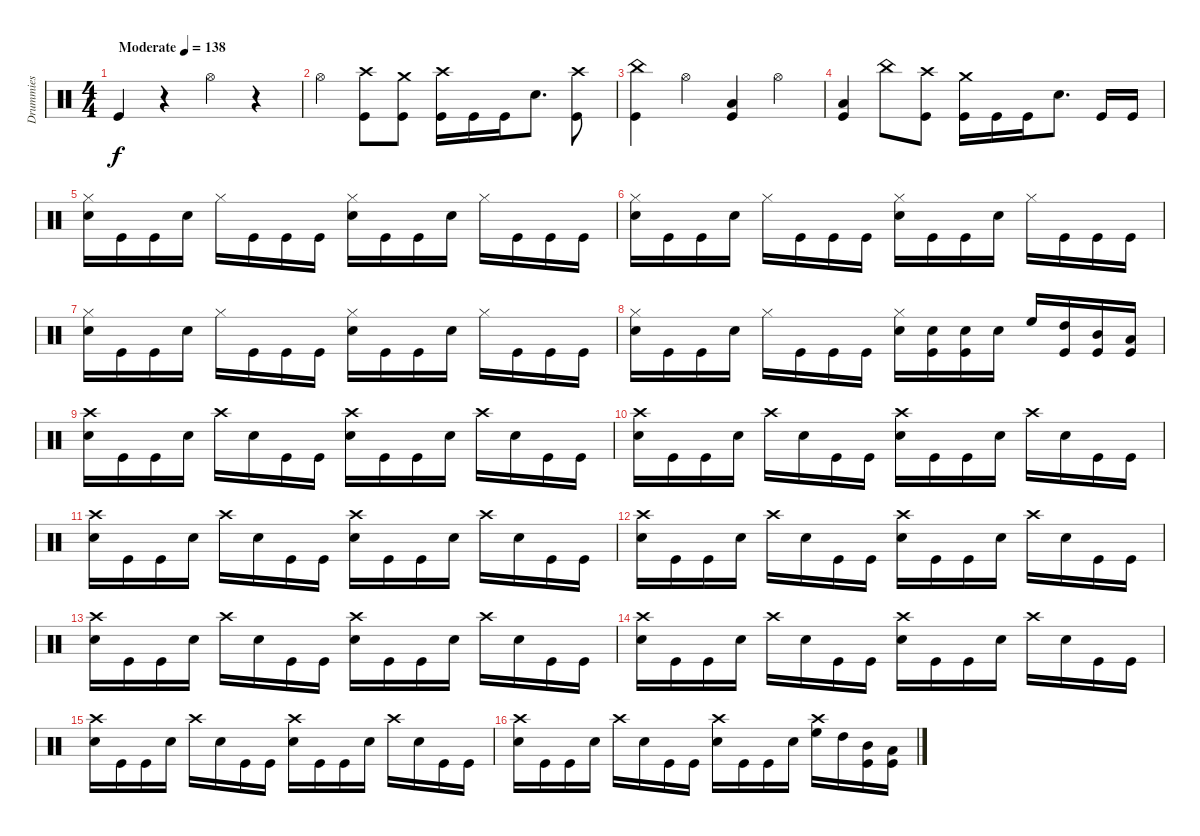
\track ("Drummies" "Drummies") {instrument percussion}
\staff {score}
\articulation defaults
\ts (4 4)
\tempo (138 "Moderate")
\clef neutral
\ks c "Kick (hit)".4{dy f}
r.4 "Hi-Hat (open)".4 r.4 |
"Hi-Hat (open)".4 ("Crash high (hit)" "Kick (hit)").8 ("Crash medium (hit)" "Kick (hit)").8 ("Crash high (hit)" "Kick (hit)").16 "Kick (hit)".16 "Kick (hit)".16 "Electric Snare (hit)".8{d} ("Crash high (hit)" "Kick (hit)").8 |
("China (hit)" "Kick (hit)").4 "Hi-Hat (open)".4 ("Low Tom (hit)" "Kick (hit)").4 "Hi-Hat (open)".4 |
("Low Tom (hit)" "Kick (hit)").4 "China (hit)".8 ("Crash high (hit)" "Kick (hit)").8 ("Crash medium (hit)" "Kick (hit)").16 "Kick (hit)".16 "Kick (hit)".16 "Electric Snare (hit)".8{d} "Kick (hit)".16 "Kick (hit)".16 |
("Hi-Hat (closed)" "Electric Snare (hit)").16 "Kick (hit)".16 "Kick (hit)".16 "Electric Snare (hit)".16 "Hi-Hat (closed)".16 "Kick (hit)".16 "Kick (hit)".16 "Kick (hit)".16 ("Hi-Hat (closed)" "Electric Snare (hit)").16 "Kick (hit)".16 "Kick (hit)".16 "Electric Snare (hit)".16 "Hi-Hat (closed)".16 "Kick (hit)".16 "Kick (hit)".16 "Kick (hit)".16 |
("Hi-Hat (closed)" "Electric Snare (hit)").16 "Kick (hit)".16 "Kick (hit)".16 "Electric Snare (hit)".16 "Hi-Hat (closed)".16 "Kick (hit)".16 "Kick (hit)".16 "Kick (hit)".16 ("Hi-Hat (closed)" "Electric Snare (hit)").16 "Kick (hit)".16 "Kick (hit)".16 "Electric Snare (hit)".16 "Hi-Hat (closed)".16 "Kick (hit)".16 "Kick (hit)".16 "Kick (hit)".16 |
("Hi-Hat (closed)" "Electric Snare (hit)").16 "Kick (hit)".16 "Kick (hit)".16 "Electric Snare (hit)".16 "Hi-Hat (closed)".16 "Kick (hit)".16 "Kick (hit)".16 "Kick (hit)".16 ("Hi-Hat (closed)" "Electric Snare (hit)").16 "Kick (hit)".16 "Kick (hit)".16 "Electric Snare (hit)".16 "Hi-Hat (closed)".16 "Kick (hit)".16 "Kick (hit)".16 "Kick (hit)".16 |
("Hi-Hat (closed)" "Electric Snare (hit)").16 "Kick (hit)".16 "Kick (hit)".16 "Electric Snare (hit)".16 "Hi-Hat (closed)".16 "Kick (hit)".16 "Kick (hit)".16 "Kick (hit)".16 ("Hi-Hat (closed)" "Electric Snare (hit)").16 ("Electric Snare (hit)" "Kick (hit)").16 ("Electric Snare (hit)" "Kick (hit)").16 "Electric Snare (hit)".16 "High Floor Tom (hit)".16 ("High Tom (hit)" "Kick (hit)").16 ("Mid Tom (hit)" "Kick (hit)").16 ("Low Tom (hit)" "Kick (hit)").16 |
("Crash high (hit)" "Electric Snare (hit)").16 "Kick (hit)".16 "Kick (hit)".16 "Electric Snare (hit)".16 "Crash high (hit)".16 "Electric Snare (hit)".16 "Kick (hit)".16 "Kick (hit)".16 ("Crash high (hit)" "Electric Snare (hit)").16 "Kick (hit)".16 "Kick (hit)".16 "Electric Snare (hit)".16 "Crash high (hit)".16 "Electric Snare (hit)".16 "Kick (hit)".16 "Kick (hit)".16 |
("Crash high (hit)" "Electric Snare (hit)").16 "Kick (hit)".16 "Kick (hit)".16 "Electric Snare (hit)".16 "Crash high (hit)".16 "Electric Snare (hit)".16 "Kick (hit)".16 "Kick (hit)".16 ("Crash high (hit)" "Electric Snare (hit)").16 "Kick (hit)".16 "Kick (hit)".16 "Electric Snare (hit)".16 "Crash high (hit)".16 "Electric Snare (hit)".16 "Kick (hit)".16 "Kick (hit)".16 |
("Crash high (hit)" "Electric Snare (hit)").16 "Kick (hit)".16 "Kick (hit)".16 "Electric Snare (hit)".16 "Crash high (hit)".16 "Electric Snare (hit)".16 "Kick (hit)".16 "Kick (hit)".16 ("Crash high (hit)" "Electric Snare (hit)").16 "Kick (hit)".16 "Kick (hit)".16 "Electric Snare (hit)".16 "Crash high (hit)".16 "Electric Snare (hit)".16 "Kick (hit)".16 "Kick (hit)".16 |
("Crash high (hit)" "Electric Snare (hit)").16 "Kick (hit)".16 "Kick (hit)".16 "Electric Snare (hit)".16 "Crash high (hit)".16 "Electric Snare (hit)".16 "Kick (hit)".16 "Kick (hit)".16 ("Crash high (hit)" "Electric Snare (hit)").16 "Kick (hit)".16 "Kick (hit)".16 "Electric Snare (hit)".16 "Crash high (hit)".16 "Electric Snare (hit)".16 "Kick (hit)".16 "Kick (hit)".16 |
("Crash high (hit)" "Electric Snare (hit)").16 "Kick (hit)".16 "Kick (hit)".16 "Electric Snare (hit)".16 "Crash high (hit)".16 "Electric Snare (hit)".16 "Kick (hit)".16 "Kick (hit)".16 ("Crash high (hit)" "Electric Snare (hit)").16 "Kick (hit)".16 "Kick (hit)".16 "Electric Snare (hit)".16 "Crash high (hit)".16 "Electric Snare (hit)".16 "Kick (hit)".16 "Kick (hit)".16 |
("Crash high (hit)" "Electric Snare (hit)").16 "Kick (hit)".16 "Kick (hit)".16 "Electric Snare (hit)".16 "Crash high (hit)".16 "Electric Snare (hit)".16 "Kick (hit)".16 "Kick (hit)".16 ("Crash high (hit)" "Electric Snare (hit)").16 "Kick (hit)".16 "Kick (hit)".16 "Electric Snare (hit)".16 "Crash high (hit)".16 "Electric Snare (hit)".16 "Kick (hit)".16 "Kick (hit)".16 |
("Crash high (hit)" "Electric Snare (hit)").16 "Kick (hit)".16 "Kick (hit)".16 "Electric Snare (hit)".16 "Crash high (hit)".16 "Electric Snare (hit)".16 "Kick (hit)".16 "Kick (hit)".16 ("Crash high (hit)" "Electric Snare (hit)").16 "Kick (hit)".16 "Kick (hit)".16 "Electric Snare (hit)".16 "Crash high (hit)".16 "Electric Snare (hit)".16 "Kick (hit)".16 "Kick (hit)".16 |
("Crash high (hit)" "Electric Snare (hit)").16 "Kick (hit)".16 "Kick (hit)".16 "Electric Snare (hit)".16 "Crash high (hit)".16 "Electric Snare (hit)".16 "Kick (hit)".16 "Kick (hit)".16 ("Crash high (hit)" "Electric Snare (hit)").16 "Kick (hit)".16 "Kick (hit)".16 "Electric Snare (hit)".16 ("Crash high (hit)" "High Floor Tom (hit)").16 "High Tom (hit)".16 ("Mid Tom (hit)" "Kick (hit)").16 ("Low Tom (hit)" "Kick (hit)").16
